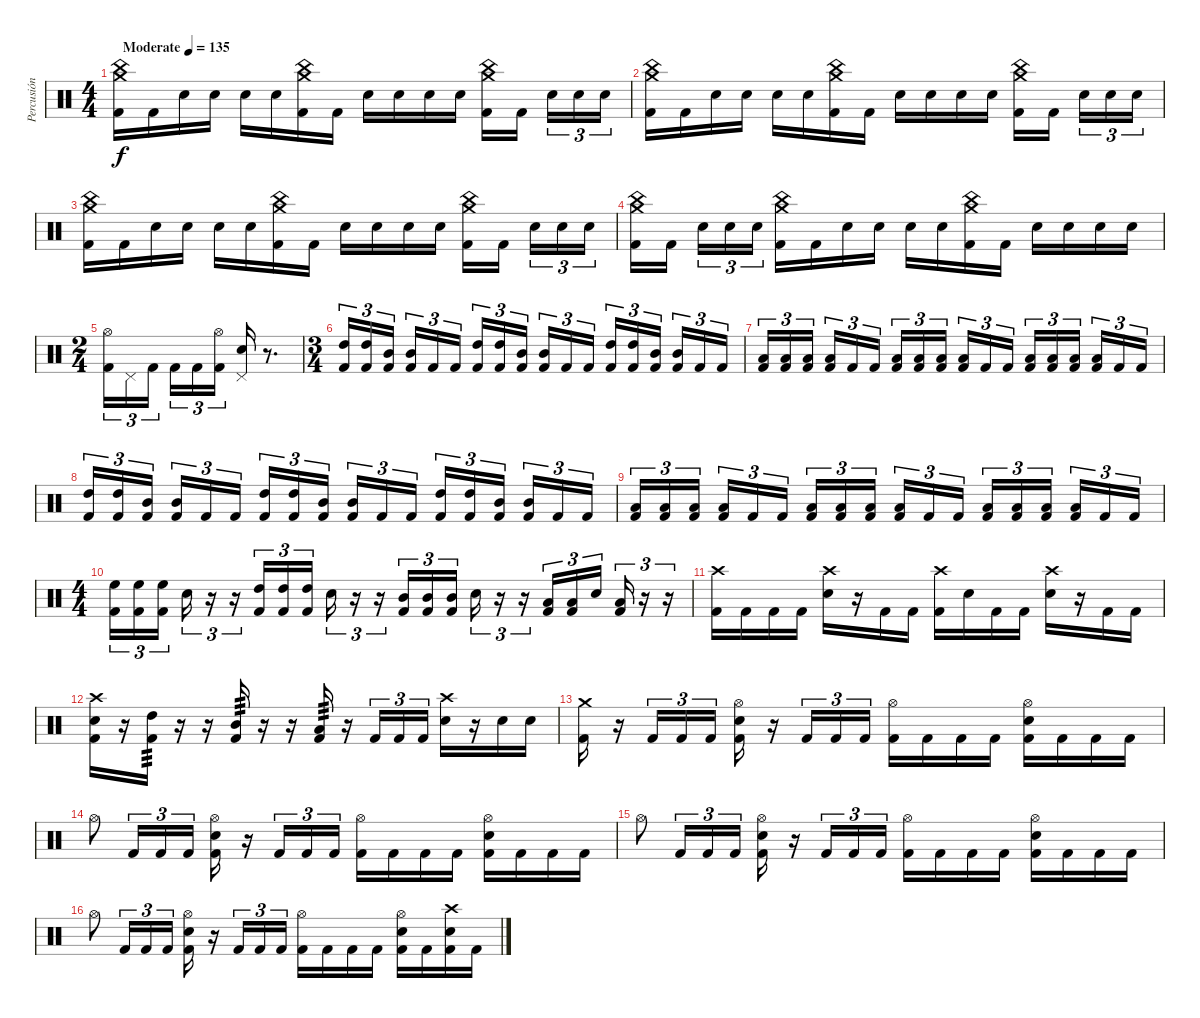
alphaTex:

\track ("Percusión" "Percusión") {instrument percussion}
\staff {score}
\articulation defaults
\ts (4 4)
\tempo (135 "Moderate")
\clef neutral
\ks c
("China (hit)" "Crash medium (hit)" "Kick (hit) 2").16{dy f} "Kick (hit) 2".16 "Electric Snare (hit)".16 "Electric Snare (hit)".16 "Electric Snare (hit)".16 "Electric Snare (hit)".16 ("China (hit)" "Crash medium (hit)" "Kick (hit) 2").16 "Kick (hit) 2".16 "Electric Snare (hit)".16 "Electric Snare (hit)".16 "Electric Snare (hit)".16 "Electric Snare (hit)".16 ("China (hit)" "Crash medium (hit)" "Kick (hit) 2").16 "Kick (hit) 2".16{beam splitsecondary} "Electric Snare (hit)".16{tu (3 2)} "Electric Snare (hit)".16{tu (3 2)} "Electric Snare (hit)".16{tu (3 2)} |
("China (hit)" "Crash medium (hit)" "Kick (hit) 2").16 "Kick (hit) 2".16 "Electric Snare (hit)".16 "Electric Snare (hit)".16 "Electric Snare (hit)".16 "Electric Snare (hit)".16 ("China (hit)" "Crash medium (hit)" "Kick (hit) 2").16 "Kick (hit) 2".16 "Electric Snare (hit)".16 "Electric Snare (hit)".16 "Electric Snare (hit)".16 "Electric Snare (hit)".16 ("China (hit)" "Crash medium (hit)" "Kick (hit) 2").16 "Kick (hit) 2".16{beam splitsecondary} "Electric Snare (hit)".16{tu (3 2)} "Electric Snare (hit)".16{tu (3 2)} "Electric Snare (hit)".16{tu (3 2)} |
("China (hit)" "Crash medium (hit)" "Kick (hit) 2").16 "Kick (hit) 2".16 "Electric Snare (hit)".16 "Electric Snare (hit)".16 "Electric Snare (hit)".16 "Electric Snare (hit)".16 ("China (hit)" "Crash medium (hit)" "Kick (hit) 2").16 "Kick (hit) 2".16 "Electric Snare (hit)".16 "Electric Snare (hit)".16 "Electric Snare (hit)".16 "Electric Snare (hit)".16 ("China (hit)" "Crash medium (hit)" "Kick (hit) 2").16 "Kick (hit) 2".16{beam splitsecondary} "Electric Snare (hit)".16{tu (3 2)} "Electric Snare (hit)".16{tu (3 2)} "Electric Snare (hit)".16{tu (3 2)} |
("China (hit)" "Crash medium (hit)" "Kick (hit) 2").16 "Kick (hit) 2".16{beam splitsecondary} "Electric Snare (hit)".16{tu (3 2)} "Electric Snare (hit)".16{tu (3 2)} "Electric Snare (hit)".16{tu (3 2)} ("China (hit)" "Crash medium (hit)" "Kick (hit) 2").16 "Kick (hit) 2".16 "Electric Snare (hit)".16 "Electric Snare (hit)".16 "Electric Snare (hit)".16 "Electric Snare (hit)".16 ("China (hit)" "Crash medium (hit)" "Kick (hit) 2").16 "Kick (hit) 2".16 "Electric Snare (hit)".16 "Electric Snare (hit)".16 "Electric Snare (hit)".16 "Electric Snare (hit)".16 |
\ts (2 4)
("Hi-Hat (open)" "Kick (hit) 2").16{tu (3 2)} "Pedal Hi-Hat (hit)".16{tu (3 2)} "Kick (hit) 2".16{tu (3 2) beam splitsecondary} "Kick (hit) 2".16{tu (3 2)} "Kick (hit) 2".16{tu (3 2)} ("Hi-Hat (open)" "Kick (hit) 2").16{tu (3 2)} ("Pedal Hi-Hat (hit)" "Electric Snare (hit)").16 r.8{d} |
\ts (3 4)
("High Tom (hit)" "Kick (hit) 2").16{tu (3 2)} ("High Tom (hit)" "Kick (hit) 2").16{tu (3 2)} ("Mid Tom (hit)" "Kick (hit) 2").16{tu (3 2) beam splitsecondary} ("Mid Tom (hit)" "Kick (hit) 2").16{tu (3 2)} "Kick (hit) 2".16{tu (3 2)} "Kick (hit) 2".16{tu (3 2)} ("High Tom (hit)" "Kick (hit) 2").16{tu (3 2)} ("High Tom (hit)" "Kick (hit) 2").16{tu (3 2)} ("Mid Tom (hit)" "Kick (hit) 2").16{tu (3 2) beam splitsecondary} ("Mid Tom (hit)" "Kick (hit) 2").16{tu (3 2)} "Kick (hit) 2".16{tu (3 2)} "Kick (hit) 2".16{tu (3 2)} ("High Tom (hit)" "Kick (hit) 2").16{tu (3 2)} ("High Tom (hit)" "Kick (hit) 2").16{tu (3 2)} ("Mid Tom (hit)" "Kick (hit) 2").16{tu (3 2) beam splitsecondary} ("Mid Tom (hit)" "Kick (hit) 2").16{tu (3 2)} "Kick (hit) 2".16{tu (3 2)} "Kick (hit) 2".16{tu (3 2)} |
("Low Tom (hit)" "Kick (hit) 2").16{tu (3 2)} ("Low Tom (hit)" "Kick (hit) 2").16{tu (3 2)} ("Low Floor Tom (hit)" "Kick (hit) 2").16{tu (3 2) beam splitsecondary} ("Low Floor Tom (hit)" "Kick (hit) 2").16{tu (3 2)} "Kick (hit) 2".16{tu (3 2)} "Kick (hit) 2".16{tu (3 2)} ("Low Tom (hit)" "Kick (hit) 2").16{tu (3 2)} ("Low Tom (hit)" "Kick (hit) 2").16{tu (3 2)} ("Low Floor Tom (hit)" "Kick (hit) 2").16{tu (3 2) beam splitsecondary} ("Low Floor Tom (hit)" "Kick (hit) 2").16{tu (3 2)} "Kick (hit) 2".16{tu (3 2)} "Kick (hit) 2".16{tu (3 2)} ("Low Tom (hit)" "Kick (hit) 2").16{tu (3 2)} ("Low Tom (hit)" "Kick (hit) 2").16{tu (3 2)} ("Low Floor Tom (hit)" "Kick (hit) 2").16{tu (3 2) beam splitsecondary} ("Low Floor Tom (hit)" "Kick (hit) 2").16{tu (3 2)} "Kick (hit) 2".16{tu (3 2)} "Kick (hit) 2".16{tu (3 2)} |
("High Tom (hit)" "Kick (hit) 2").16{tu (3 2)} ("High Tom (hit)" "Kick (hit) 2").16{tu (3 2)} ("Mid Tom (hit)" "Kick (hit) 2").16{tu (3 2) beam splitsecondary} ("Mid Tom (hit)" "Kick (hit) 2").16{tu (3 2)} "Kick (hit) 2".16{tu (3 2)} "Kick (hit) 2".16{tu (3 2)} ("High Tom (hit)" "Kick (hit) 2").16{tu (3 2)} ("High Tom (hit)" "Kick (hit) 2").16{tu (3 2)} ("Mid Tom (hit)" "Kick (hit) 2").16{tu (3 2) beam splitsecondary} ("Mid Tom (hit)" "Kick (hit) 2").16{tu (3 2)} "Kick (hit) 2".16{tu (3 2)} "Kick (hit) 2".16{tu (3 2)} ("High Tom (hit)" "Kick (hit) 2").16{tu (3 2)} ("High Tom (hit)" "Kick (hit) 2").16{tu (3 2)} ("Mid Tom (hit)" "Kick (hit) 2").16{tu (3 2) beam splitsecondary} ("Mid Tom (hit)" "Kick (hit) 2").16{tu (3 2)} "Kick (hit) 2".16{tu (3 2)} "Kick (hit) 2".16{tu (3 2)} |
("Low Tom (hit)" "Kick (hit) 2").16{tu (3 2)} ("Low Tom (hit)" "Kick (hit) 2").16{tu (3 2)} ("Low Floor Tom (hit)" "Kick (hit) 2").16{tu (3 2) beam splitsecondary} ("Low Floor Tom (hit)" "Kick (hit) 2").16{tu (3 2)} "Kick (hit) 2".16{tu (3 2)} "Kick (hit) 2".16{tu (3 2)} ("Low Tom (hit)" "Kick (hit) 2").16{tu (3 2)} ("Low Tom (hit)" "Kick (hit) 2").16{tu (3 2)} ("Low Floor Tom (hit)" "Kick (hit) 2").16{tu (3 2) beam splitsecondary} ("Low Floor Tom (hit)" "Kick (hit) 2").16{tu (3 2)} "Kick (hit) 2".16{tu (3 2)} "Kick (hit) 2".16{tu (3 2)} ("Low Tom (hit)" "Kick (hit) 2").16{tu (3 2)} ("Low Tom (hit)" "Kick (hit) 2").16{tu (3 2)} ("Low Floor Tom (hit)" "Kick (hit) 2").16{tu (3 2) beam splitsecondary} ("Low Floor Tom (hit)" "Kick (hit) 2").16{tu (3 2)} "Kick (hit) 2".16{tu (3 2)} "Kick (hit) 2".16{tu (3 2)} |
\ts (4 4)
("High Floor Tom (hit)" "Kick (hit) 2").16{tu (3 2)} ("High Floor Tom (hit)" "Kick (hit) 2").16{tu (3 2)} ("High Floor Tom (hit)" "Kick (hit) 2").16{tu (3 2) beam splitsecondary} "Electric Snare (hit)".16{tu (3 2)} r.16{tu (3 2)} r.16{tu (3 2)} ("High Tom (hit)" "Kick (hit) 2").16{tu (3 2)} ("High Tom (hit)" "Kick (hit) 2").16{tu (3 2)} ("High Tom (hit)" "Kick (hit) 2").16{tu (3 2) beam splitsecondary} "Electric Snare (hit)".16{tu (3 2)} r.16{tu (3 2)} r.16{tu (3 2)} ("Mid Tom (hit)" "Kick (hit) 2").16{tu (3 2)} ("Mid Tom (hit)" "Kick (hit) 2").16{tu (3 2)} ("Mid Tom (hit)" "Kick (hit) 2").16{tu (3 2) beam splitsecondary} "Electric Snare (hit)".16{tu (3 2)} r.16{tu (3 2)} r.16{tu (3 2)} ("Low Tom (hit)" "Kick (hit) 2").16{tu (3 2)} ("Low Tom (hit)" "Kick (hit) 2").16{tu (3 2)} "Electric Snare (hit)".16{tu (3 2) beam splitsecondary} ("Low Tom (hit)" "Kick (hit) 2").16{tu (3 2)} r.16{tu (3 2)} r.16{tu (3 2)} |
("Crash high (hit)" "Kick (hit) 2").16 "Kick (hit) 2".16 "Kick (hit) 2".16 "Kick (hit) 2".16 ("Crash high (hit)" "Electric Snare (hit)").16 r.16 "Kick (hit) 2".16 "Kick (hit) 2".16 ("Crash high (hit)" "Kick (hit) 2").16 "Electric Snare (hit)".16 "Kick (hit) 2".16 "Kick (hit) 2".16 ("Crash high (hit)" "Electric Snare (hit)").16 r.16 "Kick (hit) 2".16 "Kick (hit) 2".16 |
("Crash high (hit)" "Electric Snare (hit)" "Kick (hit) 2").16 r.16 ("High Tom (hit)" "Kick (hit) 2").16{tp 3} r.16 r.16 ("Mid Tom (hit)" "Kick (hit) 2").16{tp 3} r.16 r.16 ("Low Tom (hit)" "Kick (hit) 2").16{tp 3} r.16 "Kick (hit) 2".16{tu (3 2)} "Kick (hit) 2".16{tu (3 2)} "Kick (hit) 2".16{tu (3 2)} ("Crash high (hit)" "Electric Snare (hit)").16 r.16 "Electric Snare (hit)".16 "Electric Snare (hit)".16 |
("Crash medium (hit)" "Kick (hit) 2").16 r.16 "Kick (hit) 2".16{tu (3 2)} "Kick (hit) 2".16{tu (3 2)} "Kick (hit) 2".16{tu (3 2)} ("Hi-Hat (open)" "Electric Snare (hit)" "Kick (hit) 2").16 r.16 "Kick (hit) 2".16{tu (3 2)} "Kick (hit) 2".16{tu (3 2)} "Kick (hit) 2".16{tu (3 2)} ("Hi-Hat (open)" "Kick (hit) 2").16 "Kick (hit) 2".16 "Kick (hit) 2".16 "Kick (hit) 2".16 ("Hi-Hat (open)" "Electric Snare (hit)" "Kick (hit) 2").16 "Kick (hit) 2".16 "Kick (hit) 2".16 "Kick (hit) 2".16 |
"Hi-Hat (open)".8 "Kick (hit) 2".16{tu (3 2)} "Kick (hit) 2".16{tu (3 2)} "Kick (hit) 2".16{tu (3 2)} ("Hi-Hat (open)" "Electric Snare (hit)" "Kick (hit) 2").16 r.16 "Kick (hit) 2".16{tu (3 2)} "Kick (hit) 2".16{tu (3 2)} "Kick (hit) 2".16{tu (3 2)} ("Hi-Hat (open)" "Kick (hit) 2").16 "Kick (hit) 2".16 "Kick (hit) 2".16 "Kick (hit) 2".16 ("Hi-Hat (open)" "Electric Snare (hit)" "Kick (hit) 2").16 "Kick (hit) 2".16 "Kick (hit) 2".16 "Kick (hit) 2".16 |
"Hi-Hat (open)".8 "Kick (hit) 2".16{tu (3 2)} "Kick (hit) 2".16{tu (3 2)} "Kick (hit) 2".16{tu (3 2)} ("Hi-Hat (open)" "Electric Snare (hit)" "Kick (hit) 2").16 r.16 "Kick (hit) 2".16{tu (3 2)} "Kick (hit) 2".16{tu (3 2)} "Kick (hit) 2".16{tu (3 2)} ("Hi-Hat (open)" "Kick (hit) 2").16 "Kick (hit) 2".16 "Kick (hit) 2".16 "Kick (hit) 2".16 ("Hi-Hat (open)" "Electric Snare (hit)" "Kick (hit) 2").16 "Kick (hit) 2".16 "Kick (hit) 2".16 "Kick (hit) 2".16 |
"Hi-Hat (open)".8 "Kick (hit) 2".16{tu (3 2)} "Kick (hit) 2".16{tu (3 2)} "Kick (hit) 2".16{tu (3 2)} ("Hi-Hat (open)" "Electric Snare (hit)" "Kick (hit) 2").16 r.16 "Kick (hit) 2".16{tu (3 2)} "Kick (hit) 2".16{tu (3 2)} "Kick (hit) 2".16{tu (3 2)} ("Hi-Hat (open)" "Kick (hit) 2").16 "Kick (hit) 2".16 "Kick (hit) 2".16 "Kick (hit) 2".16 ("Hi-Hat (open)" "Electric Snare (hit)" "Kick (hit) 2").16 "Kick (hit) 2".16 ("Crash high (hit)" "Electric Snare (hit)" "Kick (hit) 2").16 "Kick (hit) 2".16
